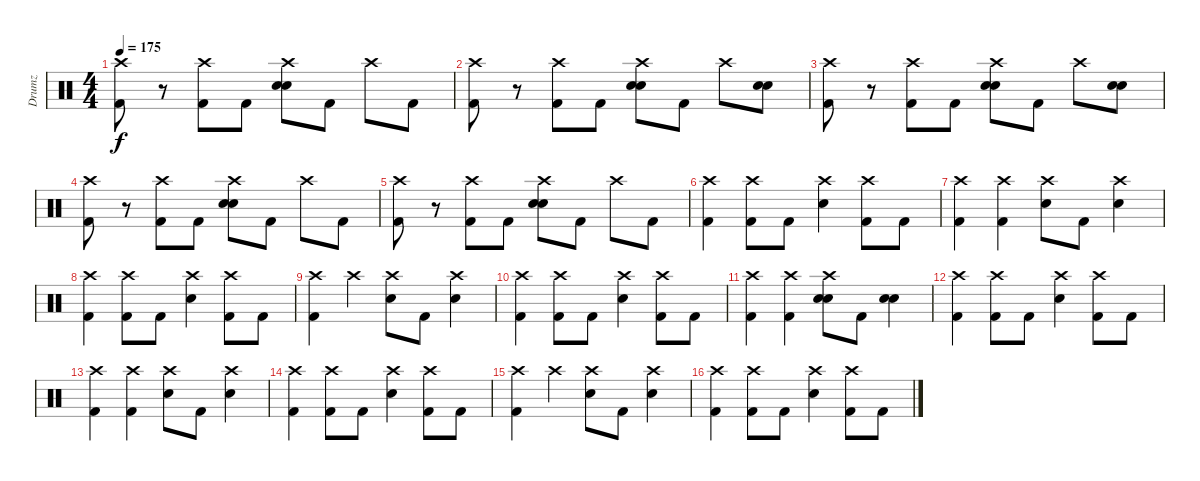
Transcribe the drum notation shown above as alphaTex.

\track ("Drumz" "Drumz") {instrument percussion}
\staff {score}
\articulation defaults
\ts (4 4)
\tempo 175
\clef neutral
\ks c
("Kick (hit) 2" "Crash high (hit)").8{dy f} r.8 ("Kick (hit) 2" "Crash high (hit)").8 "Kick (hit) 2".8 ("Electric Snare (hit)" "Electric Snare (hit)" "Crash high (hit)").8 "Kick (hit) 2".8 "Crash high (hit)".8 "Kick (hit) 2".8 |
("Kick (hit) 2" "Crash high (hit)").8 r.8 ("Kick (hit) 2" "Crash high (hit)").8 "Kick (hit) 2".8 ("Electric Snare (hit)" "Electric Snare (hit)" "Crash high (hit)").8 "Kick (hit) 2".8 "Crash high (hit)".8 ("Electric Snare (hit)" "Electric Snare (hit)").8 |
("Kick (hit) 2" "Crash high (hit)").8 r.8 ("Kick (hit) 2" "Crash high (hit)").8 "Kick (hit) 2".8 ("Electric Snare (hit)" "Electric Snare (hit)" "Crash high (hit)").8 "Kick (hit) 2".8 "Crash high (hit)".8 ("Electric Snare (hit)" "Electric Snare (hit)").8 |
("Kick (hit) 2" "Crash high (hit)").8 r.8 ("Kick (hit) 2" "Crash high (hit)").8 "Kick (hit) 2".8 ("Electric Snare (hit)" "Electric Snare (hit)" "Crash high (hit)").8 "Kick (hit) 2".8 "Crash high (hit)".8 "Kick (hit) 2".8 |
("Kick (hit) 2" "Crash high (hit)").8 r.8 ("Kick (hit) 2" "Crash high (hit)").8 "Kick (hit) 2".8 ("Electric Snare (hit)" "Electric Snare (hit)" "Crash high (hit)").8 "Kick (hit) 2".8 "Crash high (hit)".8 "Kick (hit) 2".8 |
("Kick (hit) 2" "Crash high (hit)").4 ("Kick (hit) 2" "Crash high (hit)").8 "Kick (hit) 2".8 ("Electric Snare (hit)" "Crash high (hit)").4 ("Kick (hit) 2" "Crash high (hit)").8 "Kick (hit) 2".8 |
("Kick (hit) 2" "Crash high (hit)").4 ("Kick (hit) 2" "Crash high (hit)").4 ("Electric Snare (hit)" "Crash high (hit)").8 "Kick (hit) 2".8 ("Electric Snare (hit)" "Crash high (hit)").4 |
("Kick (hit) 2" "Crash high (hit)").4 ("Kick (hit) 2" "Crash high (hit)").8 "Kick (hit) 2".8 ("Electric Snare (hit)" "Crash high (hit)").4 ("Kick (hit) 2" "Crash high (hit)").8 "Kick (hit) 2".8 |
("Kick (hit) 2" "Crash high (hit)").4 "Crash high (hit)".4 ("Electric Snare (hit)" "Crash high (hit)").8 "Kick (hit) 2".8 ("Electric Snare (hit)" "Crash high (hit)").4 |
("Kick (hit) 2" "Crash high (hit)").4 ("Kick (hit) 2" "Crash high (hit)").8 "Kick (hit) 2".8 ("Electric Snare (hit)" "Crash high (hit)").4 ("Kick (hit) 2" "Crash high (hit)").8 "Kick (hit) 2".8 |
("Kick (hit) 2" "Crash high (hit)").4 ("Kick (hit) 2" "Crash high (hit)").4 ("Electric Snare (hit)" "Crash high (hit)" "Electric Snare (hit)").8 "Kick (hit) 2".8 ("Electric Snare (hit)" "Electric Snare (hit)").4 |
("Kick (hit) 2" "Crash high (hit)").4 ("Kick (hit) 2" "Crash high (hit)").8 "Kick (hit) 2".8 ("Electric Snare (hit)" "Crash high (hit)").4 ("Kick (hit) 2" "Crash high (hit)").8 "Kick (hit) 2".8 |
("Kick (hit) 2" "Crash high (hit)").4 ("Kick (hit) 2" "Crash high (hit)").4 ("Electric Snare (hit)" "Crash high (hit)").8 "Kick (hit) 2".8 ("Electric Snare (hit)" "Crash high (hit)").4 |
("Kick (hit) 2" "Crash high (hit)").4 ("Kick (hit) 2" "Crash high (hit)").8 "Kick (hit) 2".8 ("Electric Snare (hit)" "Crash high (hit)").4 ("Kick (hit) 2" "Crash high (hit)").8 "Kick (hit) 2".8 |
("Kick (hit) 2" "Crash high (hit)").4 "Crash high (hit)".4 ("Electric Snare (hit)" "Crash high (hit)").8 "Kick (hit) 2".8 ("Electric Snare (hit)" "Crash high (hit)").4 |
("Kick (hit) 2" "Crash high (hit)").4 ("Kick (hit) 2" "Crash high (hit)").8 "Kick (hit) 2".8 ("Electric Snare (hit)" "Crash high (hit)").4 ("Kick (hit) 2" "Crash high (hit)").8 "Kick (hit) 2".8
